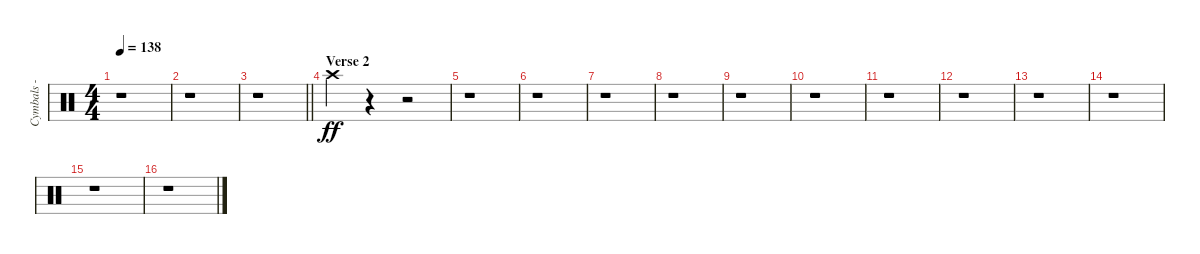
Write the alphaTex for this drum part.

\track ("Cymbals - crash" "Cymbals - ") {instrument percussion}
\staff {score}
\articulation defaults
\ts (4 4)
\tempo 138
\clef neutral
\ks c
r.1{dy ff} |
r.1 |
\barLineRight lightlight
r.1 |
\section ("" "Verse 2")
"Crash high (hit)".4 r.4 r.2 |
r.1 |
r.1 |
r.1 |
r.1 |
r.1 |
r.1 |
r.1 |
r.1 |
r.1 |
r.1 |
r.1 |
r.1
